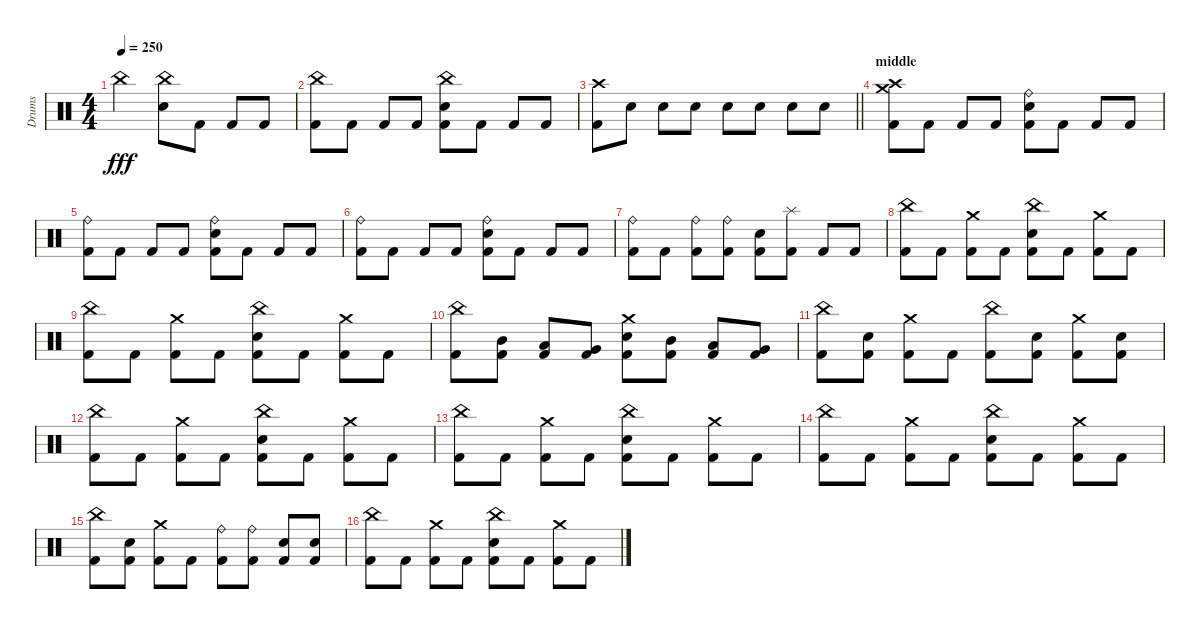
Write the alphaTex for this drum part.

\track ("Drums" "Drums") {solo instrument percussion}
\staff {score}
\articulation defaults
\ts (4 4)
\tempo 250
\clef neutral
\ks c "China (hit)".2{dy fff}
("China (hit)" "Snare (hit) 2").8 "Kick (hit) 2".8 "Kick (hit) 2".8 "Kick (hit) 2".8 |
("China (hit)" "Kick (hit) 2").8 "Kick (hit) 2".8 "Kick (hit) 2".8 "Kick (hit) 2".8 ("China (hit)" "Snare (hit) 2" "Kick (hit) 2").8 "Kick (hit) 2".8 "Kick (hit) 2".8 "Kick (hit) 2".8 |
\barLineRight lightlight
("Crash high (hit)" "Kick (hit) 2").8 "Snare (hit) 2".8 "Snare (hit) 2".8 "Snare (hit) 2".8 "Snare (hit) 2".8 "Snare (hit) 2".8 "Snare (hit) 2".8 "Snare (hit) 2".8 |
\section ("" "middle")
("Crash high (hit)" "Crash medium (hit)" "Kick (hit) 2").8 "Kick (hit) 2".8 "Kick (hit) 2".8 "Kick (hit) 2".8 ("Ride (bell)" "Snare (hit) 2" "Kick (hit) 2").8 "Kick (hit) 2".8 "Kick (hit) 2".8 "Kick (hit) 2".8 |
("Ride (bell)" "Kick (hit) 2").8 "Kick (hit) 2".8 "Kick (hit) 2".8 "Kick (hit) 2".8 ("Ride (bell)" "Snare (hit) 2" "Kick (hit) 2").8 "Kick (hit) 2".8 "Kick (hit) 2".8 "Kick (hit) 2".8 |
("Ride (bell)" "Kick (hit) 2").8 "Kick (hit) 2".8 "Kick (hit) 2".8 "Kick (hit) 2".8 ("Ride (bell)" "Snare (hit) 2" "Kick (hit) 2").8 "Kick (hit) 2".8 "Kick (hit) 2".8 "Kick (hit) 2".8 |
("Ride (bell)" "Kick (hit) 2").8 "Kick (hit) 2".8 ("Ride (bell)" "Kick (hit) 2").8 ("Ride (bell)" "Kick (hit) 2").8 ("Snare (hit) 2" "Kick (hit) 2").8 ("Splash (hit)" "Kick (hit) 2").8 "Kick (hit) 2".8 "Kick (hit) 2".8 |
("China (hit)" "Kick (hit) 2").8 "Kick (hit) 2".8 ("Crash medium (hit)" "Kick (hit) 2").8 "Kick (hit) 2".8 ("China (hit)" "Snare (hit) 2" "Kick (hit) 2").8 "Kick (hit) 2".8 ("Crash medium (hit)" "Kick (hit) 2").8 "Kick (hit) 2".8 |
("China (hit)" "Kick (hit) 2").8 "Kick (hit) 2".8 ("Crash medium (hit)" "Kick (hit) 2").8 "Kick (hit) 2".8 ("China (hit)" "Snare (hit) 2" "Kick (hit) 2").8 "Kick (hit) 2".8 ("Crash medium (hit)" "Kick (hit) 2").8 "Kick (hit) 2".8 |
("China (hit)" "Kick (hit) 2").8 ("Mid Tom (hit)" "Kick (hit) 2").8 ("Low Tom (hit)" "Kick (hit) 2").8 ("Very Low Tom (hit)" "Kick (hit) 2").8 ("Crash medium (hit)" "Snare (hit) 2" "Kick (hit) 2").8 ("Mid Tom (hit)" "Kick (hit) 2").8 ("Low Tom (hit)" "Kick (hit) 2").8 ("Very Low Tom (hit)" "Kick (hit) 2").8 |
("China (hit)" "Kick (hit) 2").8 ("Snare (hit) 2" "Kick (hit) 2").8 ("Crash medium (hit)" "Kick (hit) 2").8 "Kick (hit) 2".8 ("China (hit)" "Kick (hit) 2").8 ("Snare (hit) 2" "Kick (hit) 2").8 ("Crash medium (hit)" "Kick (hit) 2").8 ("Snare (hit) 2" "Kick (hit) 2").8 |
("China (hit)" "Kick (hit) 2").8 "Kick (hit) 2".8 ("Crash medium (hit)" "Kick (hit) 2").8 "Kick (hit) 2".8 ("China (hit)" "Snare (hit) 2" "Kick (hit) 2").8 "Kick (hit) 2".8 ("Crash medium (hit)" "Kick (hit) 2").8 "Kick (hit) 2".8 |
("China (hit)" "Kick (hit) 2").8 "Kick (hit) 2".8 ("Crash medium (hit)" "Kick (hit) 2").8 "Kick (hit) 2".8 ("China (hit)" "Snare (hit) 2" "Kick (hit) 2").8 "Kick (hit) 2".8 ("Crash medium (hit)" "Kick (hit) 2").8 "Kick (hit) 2".8 |
("China (hit)" "Kick (hit) 2").8 "Kick (hit) 2".8 ("Crash medium (hit)" "Kick (hit) 2").8 "Kick (hit) 2".8 ("China (hit)" "Snare (hit) 2" "Kick (hit) 2").8 "Kick (hit) 2".8 ("Crash medium (hit)" "Kick (hit) 2").8 "Kick (hit) 2".8 |
("China (hit)" "Kick (hit) 2").8 ("Snare (hit) 2" "Kick (hit) 2").8 ("Crash medium (hit)" "Kick (hit) 2").8 "Kick (hit) 2".8 ("Ride (bell)" "Kick (hit) 2").8 ("Ride (bell)" "Kick (hit) 2").8 ("Snare (hit) 2" "Kick (hit) 2").8 ("Snare (hit) 2" "Kick (hit) 2").8 |
("China (hit)" "Kick (hit) 2").8 "Kick (hit) 2".8 ("Crash medium (hit)" "Kick (hit) 2").8 "Kick (hit) 2".8 ("China (hit)" "Snare (hit) 2" "Kick (hit) 2").8 "Kick (hit) 2".8 ("Crash medium (hit)" "Kick (hit) 2").8 "Kick (hit) 2".8
